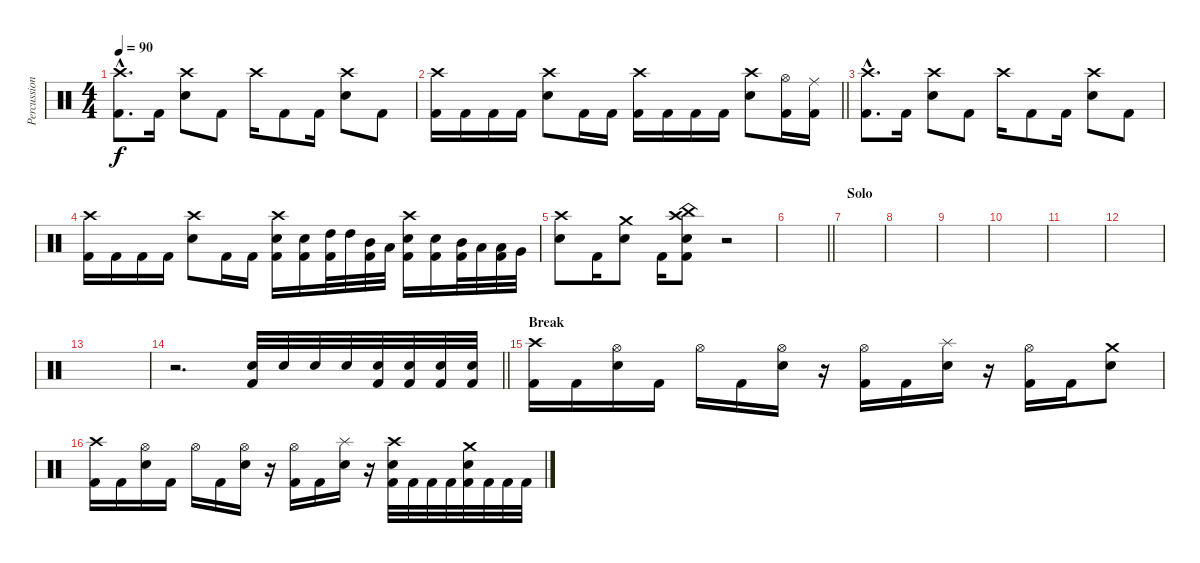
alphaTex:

\track ("Percussion" "Percussion") {instrument percussion}
\staff {score}
\articulation defaults
\ts (4 4)
\tempo 90
\clef neutral
\ks c
("Crash high (hit)"{hac} "Kick (hit) 2"{hac}).8{d dy f} "Kick (hit) 2".16 ("Crash high (hit)" "Electric Snare (hit)").8 "Kick (hit) 2".8 "Crash high (hit)".16 "Kick (hit) 2".8 "Kick (hit) 2".16 ("Crash high (hit)" "Electric Snare (hit)").8 "Kick (hit) 2".8 |
\barLineRight lightlight
("Crash high (hit)" "Kick (hit) 2").16 "Kick (hit) 2".16 "Kick (hit) 2".16 "Kick (hit) 2".16 ("Crash high (hit)" "Electric Snare (hit)").8 "Kick (hit) 2".16 "Kick (hit) 2".16 ("Crash high (hit)" "Kick (hit) 2").16 "Kick (hit) 2".16 "Kick (hit) 2".16 "Kick (hit) 2".16 ("Crash high (hit)" "Electric Snare (hit)").8 ("Hi-Hat (open)" "Kick (hit) 2").16 ("Ride (middle)" "Kick (hit) 2").16 |
("Crash high (hit)"{hac} "Kick (hit) 2"{hac}).8{d} "Kick (hit) 2".16 ("Crash high (hit)" "Electric Snare (hit)").8 "Kick (hit) 2".8 "Crash high (hit)".16 "Kick (hit) 2".8 "Kick (hit) 2".16 ("Crash high (hit)" "Electric Snare (hit)").8 "Kick (hit) 2".8 |
("Crash high (hit)" "Kick (hit) 2").16 "Kick (hit) 2".16 "Kick (hit) 2".16 "Kick (hit) 2".16 ("Crash high (hit)" "Electric Snare (hit)").8 "Kick (hit) 2".16 "Kick (hit) 2".16 ("Crash high (hit)" "Electric Snare (hit)" "Kick (hit) 2").16 ("Electric Snare (hit)" "Kick (hit) 2").16 ("High Tom (hit)" "Kick (hit) 2").32 "High Tom (hit)".32 ("Mid Tom (hit)" "Kick (hit) 2").32 "Low Tom (hit)".32 ("Crash high (hit)" "Electric Snare (hit)" "Kick (hit) 2").16 ("Electric Snare (hit)" "Kick (hit) 2").16 ("Mid Tom (hit)" "Kick (hit) 2").32 "Low Tom (hit)".32 ("Low Tom (hit)" "Kick (hit) 2").32 "Very Low Tom (hit)".32 |
("Crash high (hit)" "Electric Snare (hit)").8 "Kick (hit) 2".16 ("Crash medium (hit)" "Electric Snare (hit)").8 "Kick (hit) 2".16 ("China (hit)" "Crash high (hit)" "Electric Snare (hit)" "Kick (hit) 2").8 r.2 |
\barLineRight lightlight
|
\section ("" "Solo")
|
|
|
|
|
|
|
\barLineRight lightlight
r.2{d} ("Electric Snare (hit)" "Kick (hit) 2").32 "Electric Snare (hit)".32 "Electric Snare (hit)".32 "Electric Snare (hit)".32 ("Electric Snare (hit)" "Kick (hit) 2").32 ("Electric Snare (hit)" "Kick (hit) 2").32 ("Electric Snare (hit)" "Kick (hit) 2").32 ("Electric Snare (hit)" "Kick (hit) 2").32 |
\section ("" "Break")
("Crash high (hit)" "Kick (hit) 2").16 "Kick (hit) 2".16 ("Hi-Hat (open)" "Electric Snare (hit)").16 "Kick (hit) 2".16 "Hi-Hat (open)".16 "Kick (hit) 2".16 ("Hi-Hat (open)" "Electric Snare (hit)").16 r.16 ("Hi-Hat (open)" "Kick (hit) 2").16 "Kick (hit) 2".16 ("Splash (hit)" "Electric Snare (hit)").16 r.16 ("Hi-Hat (open)" "Kick (hit) 2").16 "Kick (hit) 2".16 ("Crash medium (hit)" "Electric Snare (hit)").8 |
("Crash high (hit)" "Kick (hit) 2").16 "Kick (hit) 2".16 ("Hi-Hat (open)" "Electric Snare (hit)").16 "Kick (hit) 2".16 "Hi-Hat (open)".16 "Kick (hit) 2".16 ("Hi-Hat (open)" "Electric Snare (hit)").16 r.16 ("Hi-Hat (open)" "Kick (hit) 2").16 "Kick (hit) 2".16 ("Splash (hit)" "Electric Snare (hit)").16 r.16 ("Crash high (hit)" "Electric Snare (hit)" "Kick (hit) 2").32 "Kick (hit) 2".32 "Kick (hit) 2".32 "Kick (hit) 2".32 ("Crash medium (hit)" "Electric Snare (hit)" "Kick (hit) 2").32 "Kick (hit) 2".32 "Kick (hit) 2".32 "Kick (hit) 2".32
